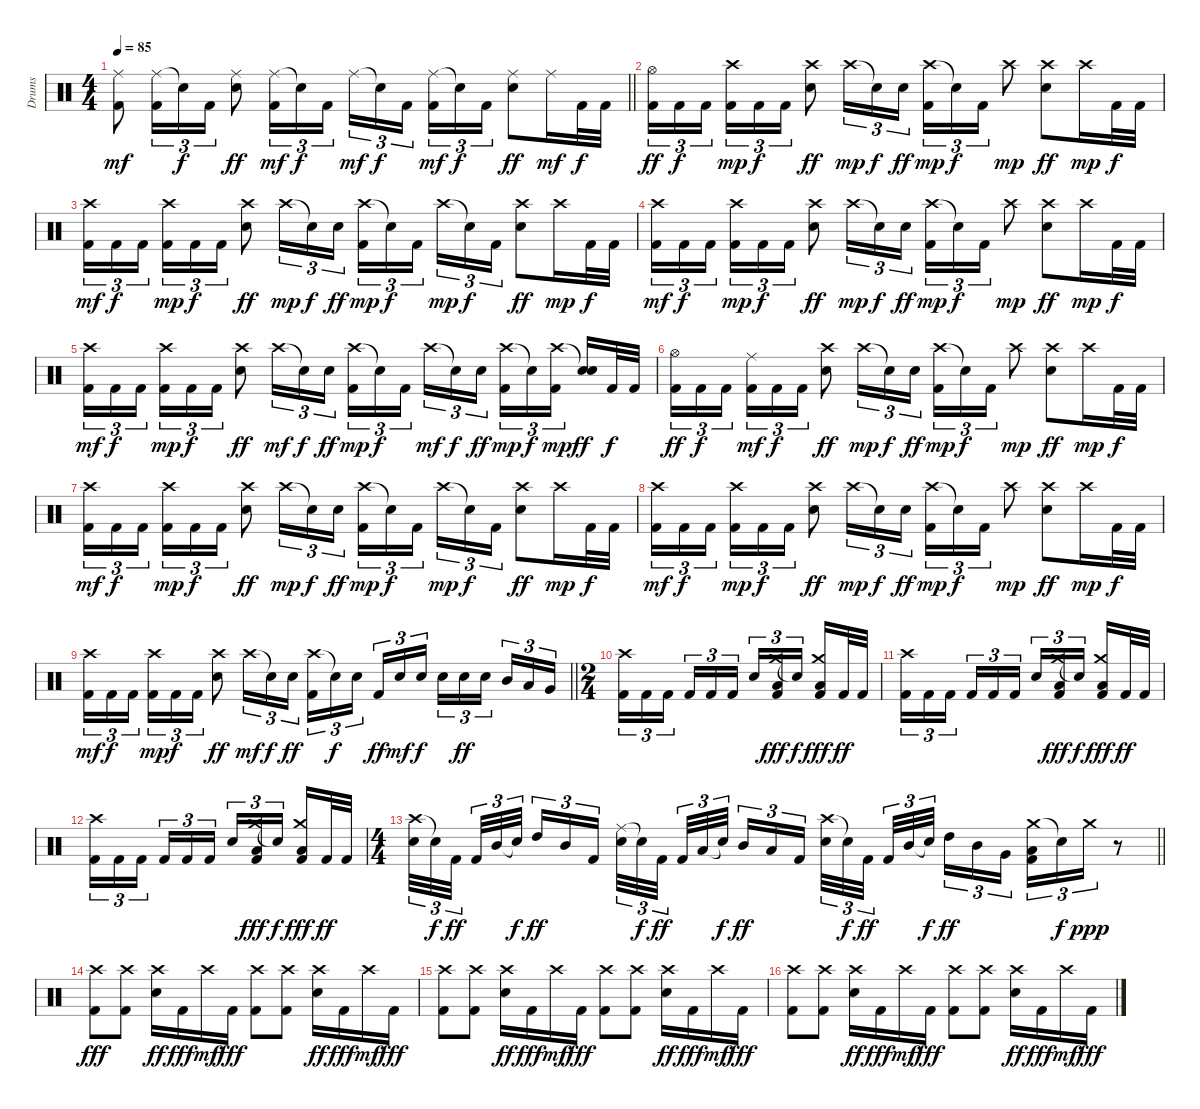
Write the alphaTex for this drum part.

\track ("Drums" "Drums") {instrument percussion}
\staff {score}
\articulation defaults
\ts (4 4)
\tempo 85
\clef neutral
\barLineRight lightlight
\ks c
("Ride (middle)" "Kick (hit) 2").8{dy mf} ("Ride (middle)" "Kick (hit) 2").16{tu (3 2)} "Snare (hit)"{t}.16{tu (3 2) dy f} "Kick (hit) 2".16{tu (3 2)} ("Ride (middle)" "Snare (hit) 2").8{dy ff} ("Ride (middle)" "Kick (hit) 2").16{tu (3 2) dy mf} "Snare (hit)"{t}.16{tu (3 2) dy f} "Kick (hit) 2".16{tu (3 2)} "Ride (middle)".16{tu (3 2) dy mf} "Snare (hit)"{t}.16{tu (3 2) dy f} "Kick (hit) 2".16{tu (3 2) beam splitsecondary} ("Ride (middle)" "Kick (hit) 2").16{tu (3 2) dy mf} "Snare (hit)"{t}.16{tu (3 2) dy f} "Kick (hit) 2".16{tu (3 2)} ("Ride (middle)" "Snare (hit) 2").8{dy ff} "Ride (middle)".16{dy mf} "Kick (hit) 2".32{dy f} "Kick (hit) 2".32 |
("Hi-Hat (open)" "Kick (hit) 2").16{tu (3 2) dy ff} "Kick (hit) 2".16{tu (3 2) dy f} "Kick (hit) 2".16{tu (3 2) beam splitsecondary} ("Crash high (hit)" "Kick (hit) 2").16{tu (3 2) dy mp} "Kick (hit) 2".16{tu (3 2) dy f} "Kick (hit) 2".16{tu (3 2)} ("Crash high (hit)" "Snare (hit) 2").8{dy ff} "Crash high (hit)".16{tu (3 2) dy mp} "Snare (hit)"{t}.16{tu (3 2) dy f} "Snare (hit) 2".16{tu (3 2) dy ff} ("Crash high (hit)" "Kick (hit) 2").16{tu (3 2) dy mp} "Snare (hit)"{t}.16{tu (3 2) dy f} "Kick (hit) 2".16{tu (3 2)} "Crash high (hit)".8{dy mp} ("Crash high (hit)" "Snare (hit) 2").8{dy ff} "Crash high (hit)".16{dy mp} "Kick (hit) 2".32{dy f} "Kick (hit) 2".32 |
("Crash high (hit)" "Kick (hit) 2").16{tu (3 2) dy mf} "Kick (hit) 2".16{tu (3 2) dy f} "Kick (hit) 2".16{tu (3 2) beam splitsecondary} ("Crash high (hit)" "Kick (hit) 2").16{tu (3 2) dy mp} "Kick (hit) 2".16{tu (3 2) dy f} "Kick (hit) 2".16{tu (3 2)} ("Crash high (hit)" "Snare (hit) 2").8{dy ff} "Crash high (hit)".16{tu (3 2) dy mp} "Snare (hit)"{t}.16{tu (3 2) dy f} "Snare (hit) 2".16{tu (3 2) dy ff} ("Crash high (hit)" "Kick (hit) 2").16{tu (3 2) dy mp} "Snare (hit)"{t}.16{tu (3 2) dy f} "Kick (hit) 2".16{tu (3 2) beam splitsecondary} "Crash high (hit)".16{tu (3 2) dy mp} "Snare (hit)"{t}.16{tu (3 2) dy f} "Kick (hit) 2".16{tu (3 2)} ("Crash high (hit)" "Snare (hit) 2").8{dy ff} "Crash high (hit)".16{dy mp} "Kick (hit) 2".32{dy f} "Kick (hit) 2".32 |
("Crash high (hit)" "Kick (hit) 2").16{tu (3 2) dy mf} "Kick (hit) 2".16{tu (3 2) dy f} "Kick (hit) 2".16{tu (3 2) beam splitsecondary} ("Crash high (hit)" "Kick (hit) 2").16{tu (3 2) dy mp} "Kick (hit) 2".16{tu (3 2) dy f} "Kick (hit) 2".16{tu (3 2)} ("Crash high (hit)" "Snare (hit) 2").8{dy ff} "Crash high (hit)".16{tu (3 2) dy mp} "Snare (hit)"{t}.16{tu (3 2) dy f} "Snare (hit) 2".16{tu (3 2) dy ff} ("Crash high (hit)" "Kick (hit) 2").16{tu (3 2) dy mp} "Snare (hit)"{t}.16{tu (3 2) dy f} "Kick (hit) 2".16{tu (3 2)} "Crash high (hit)".8{dy mp} ("Crash high (hit)" "Snare (hit) 2").8{dy ff} "Crash high (hit)".16{dy mp} "Kick (hit) 2".32{dy f} "Kick (hit) 2".32 |
("Crash high (hit)" "Kick (hit) 2").16{tu (3 2) dy mf} "Kick (hit) 2".16{tu (3 2) dy f} "Kick (hit) 2".16{tu (3 2) beam splitsecondary} ("Crash high (hit)" "Kick (hit) 2").16{tu (3 2) dy mp} "Kick (hit) 2".16{tu (3 2) dy f} "Kick (hit) 2".16{tu (3 2)} ("Crash high (hit)" "Snare (hit) 2").8{dy ff} "Crash high (hit)".16{tu (3 2) dy mf} "Snare (hit)"{t}.16{tu (3 2) dy f} "Snare (hit) 2".16{tu (3 2) dy ff} ("Crash high (hit)" "Kick (hit) 2").16{tu (3 2) dy mp} "Snare (hit)"{t}.16{tu (3 2) dy f} "Kick (hit) 2".16{tu (3 2) beam splitsecondary} "Crash high (hit)".16{tu (3 2) dy mf} "Snare (hit)"{t}.16{tu (3 2) dy f} "Snare (hit) 2".16{tu (3 2) dy ff} ("Crash high (hit)" "Kick (hit) 2").16{tu (3 2) dy mp} "Snare (hit)"{t}.16{tu (3 2) dy f} ("Crash high (hit)" "Kick (hit) 2").16{tu (3 2) dy mp beam splitsecondary} ("Snare (hit)"{t} "Snare (hit) 2").16{dy ff} "Kick (hit) 2".32{dy f} "Kick (hit) 2".32 |
("Hi-Hat (open)" "Kick (hit) 2").16{tu (3 2) dy ff} "Kick (hit) 2".16{tu (3 2) dy f} "Kick (hit) 2".16{tu (3 2) beam splitsecondary} ("Ride (middle)" "Kick (hit) 2").16{tu (3 2) dy mf} "Kick (hit) 2".16{tu (3 2) dy f} "Kick (hit) 2".16{tu (3 2)} ("Crash high (hit)" "Snare (hit) 2").8{dy ff} "Crash high (hit)".16{tu (3 2) dy mp} "Snare (hit)"{t}.16{tu (3 2) dy f} "Snare (hit) 2".16{tu (3 2) dy ff} ("Crash high (hit)" "Kick (hit) 2").16{tu (3 2) dy mp} "Snare (hit)"{t}.16{tu (3 2) dy f} "Kick (hit) 2".16{tu (3 2)} "Crash high (hit)".8{dy mp} ("Crash high (hit)" "Snare (hit) 2").8{dy ff} "Crash high (hit)".16{dy mp} "Kick (hit) 2".32{dy f} "Kick (hit) 2".32 |
("Crash high (hit)" "Kick (hit) 2").16{tu (3 2) dy mf} "Kick (hit) 2".16{tu (3 2) dy f} "Kick (hit) 2".16{tu (3 2) beam splitsecondary} ("Crash high (hit)" "Kick (hit) 2").16{tu (3 2) dy mp} "Kick (hit) 2".16{tu (3 2) dy f} "Kick (hit) 2".16{tu (3 2)} ("Crash high (hit)" "Snare (hit) 2").8{dy ff} "Crash high (hit)".16{tu (3 2) dy mp} "Snare (hit)"{t}.16{tu (3 2) dy f} "Snare (hit) 2".16{tu (3 2) dy ff} ("Crash high (hit)" "Kick (hit) 2").16{tu (3 2) dy mp} "Snare (hit)"{t}.16{tu (3 2) dy f} "Kick (hit) 2".16{tu (3 2) beam splitsecondary} "Crash high (hit)".16{tu (3 2) dy mp} "Snare (hit)"{t}.16{tu (3 2) dy f} "Kick (hit) 2".16{tu (3 2)} ("Crash high (hit)" "Snare (hit) 2").8{dy ff} "Crash high (hit)".16{dy mp} "Kick (hit) 2".32{dy f} "Kick (hit) 2".32 |
("Crash high (hit)" "Kick (hit) 2").16{tu (3 2) dy mf} "Kick (hit) 2".16{tu (3 2) dy f} "Kick (hit) 2".16{tu (3 2) beam splitsecondary} ("Crash high (hit)" "Kick (hit) 2").16{tu (3 2) dy mp} "Kick (hit) 2".16{tu (3 2) dy f} "Kick (hit) 2".16{tu (3 2)} ("Crash high (hit)" "Snare (hit) 2").8{dy ff} "Crash high (hit)".16{tu (3 2) dy mp} "Snare (hit)"{t}.16{tu (3 2) dy f} "Snare (hit) 2".16{tu (3 2) dy ff} ("Crash high (hit)" "Kick (hit) 2").16{tu (3 2) dy mp} "Snare (hit)"{t}.16{tu (3 2) dy f} "Kick (hit) 2".16{tu (3 2)} "Crash high (hit)".8{dy mp} ("Crash high (hit)" "Snare (hit) 2").8{dy ff} "Crash high (hit)".16{dy mp} "Kick (hit) 2".32{dy f} "Kick (hit) 2".32 |
\barLineRight lightlight
("Crash high (hit)" "Kick (hit) 2").16{tu (3 2) dy mf} "Kick (hit) 2".16{tu (3 2) dy f} "Kick (hit) 2".16{tu (3 2) beam splitsecondary} ("Crash high (hit)" "Kick (hit) 2").16{tu (3 2) dy mp} "Kick (hit) 2".16{tu (3 2) dy f} "Kick (hit) 2".16{tu (3 2)} ("Crash high (hit)" "Snare (hit) 2").8{dy ff} "Crash high (hit)".16{tu (3 2) dy mf} "Snare (hit)"{t}.16{tu (3 2) dy f} "Snare (hit) 2".16{tu (3 2) dy ff} ("Crash high (hit)" "Kick (hit) 2").16{tu (3 2)} "Snare (hit)"{t}.16{tu (3 2) dy f} "Snare (hit) 2".16{tu (3 2) beam splitsecondary} "Kick (hit) 2".16{tu (3 2) dy ff} "Snare (hit) 2".16{tu (3 2) dy mf} "Snare (hit) 2".16{tu (3 2) dy f} "Snare (hit) 2".16{tu (3 2)} "Snare (hit) 2".16{tu (3 2) dy ff} "Snare (hit) 2".16{tu (3 2) beam splitsecondary} "Mid Tom (hit)".16{tu (3 2)} "Low Tom (hit)".16{tu (3 2)} "Very Low Tom (hit)".16{tu (3 2)} |
\ts (2 4)
\section ("" "")
("Crash high (hit)" "Kick (hit) 2").16{tu (3 2)} "Kick (hit) 2".16{tu (3 2)} "Kick (hit) 2".16{tu (3 2) beam splitsecondary} "Kick (hit) 2".16{tu (3 2)} "Kick (hit) 2".16{tu (3 2)} "Kick (hit) 2".16{tu (3 2)} "Snare (hit) 2".16{tu (3 2)} ("Crash medium (hit)" "Low Floor Tom (hit)" "Kick (hit) 2").16{tu (3 2) dy fff} "Snare (hit)"{t}.16{tu (3 2) dy f beam splitsecondary} ("Crash medium (hit)" "Low Floor Tom (hit)" "Kick (hit) 2").16{dy fff} "Kick (hit) 2".32{dy ff} "Kick (hit) 2".32 |
("Crash high (hit)" "Kick (hit) 2").16{tu (3 2)} "Kick (hit) 2".16{tu (3 2)} "Kick (hit) 2".16{tu (3 2) beam splitsecondary} "Kick (hit) 2".16{tu (3 2)} "Kick (hit) 2".16{tu (3 2)} "Kick (hit) 2".16{tu (3 2)} "Snare (hit) 2".16{tu (3 2)} ("Crash medium (hit)" "Low Floor Tom (hit)" "Kick (hit) 2").16{tu (3 2) dy fff} "Snare (hit)"{t}.16{tu (3 2) dy f beam splitsecondary} ("Crash medium (hit)" "Low Floor Tom (hit)" "Kick (hit) 2").16{dy fff} "Kick (hit) 2".32{dy ff} "Kick (hit) 2".32 |
("Crash high (hit)" "Kick (hit) 2").16{tu (3 2)} "Kick (hit) 2".16{tu (3 2)} "Kick (hit) 2".16{tu (3 2) beam splitsecondary} "Kick (hit) 2".16{tu (3 2)} "Kick (hit) 2".16{tu (3 2)} "Kick (hit) 2".16{tu (3 2)} "Snare (hit) 2".16{tu (3 2)} ("Crash medium (hit)" "Low Floor Tom (hit)" "Kick (hit) 2").16{tu (3 2) dy fff} "Snare (hit)"{t}.16{tu (3 2) dy f beam splitsecondary} ("Crash medium (hit)" "Low Floor Tom (hit)" "Kick (hit) 2").16{dy fff} "Kick (hit) 2".32{dy ff} "Kick (hit) 2".32 |
\ts (4 4)
\barLineRight lightlight
("Crash high (hit)" "Snare (hit) 2").32{tu (3 2)} "Snare (hit)"{t}.32{tu (3 2) dy f} "Kick (hit) 2".32{tu (3 2) dy ff beam splitsecondary} "Kick (hit) 2".32{tu (3 2)} "Mid Tom (hit)".32{tu (3 2)} "Snare (hit)"{t}.32{tu (3 2) dy f beam splitsecondary} "High Tom (hit)".16{tu (3 2) dy ff} "Mid Tom (hit)".16{tu (3 2)} "Kick (hit) 2".16{tu (3 2)} ("Ride (middle)" "Snare (hit) 2").32{tu (3 2)} "Snare (hit)"{t}.32{tu (3 2) dy f} "Kick (hit) 2".32{tu (3 2) dy ff beam splitsecondary} "Kick (hit) 2".32{tu (3 2)} "Low Tom (hit)".32{tu (3 2)} "Snare (hit)"{t}.32{tu (3 2) dy f beam splitsecondary} "Mid Tom (hit)".16{tu (3 2) dy ff} "Low Tom (hit)".16{tu (3 2)} "Kick (hit) 2".16{tu (3 2)} ("Crash high (hit)" "Snare (hit) 2").32{tu (3 2)} "Snare (hit)"{t}.32{tu (3 2) dy f} "Kick (hit) 2".32{tu (3 2) dy ff beam splitsecondary} "Kick (hit) 2".32{tu (3 2)} "Mid Tom (hit)".32{tu (3 2)} "Snare (hit)"{t}.32{tu (3 2) dy f beam splitsecondary} "High Tom (hit)".16{tu (3 2) dy ff} "Mid Tom (hit)".16{tu (3 2)} "Very Low Tom (hit)".16{tu (3 2)} ("Crash medium (hit)" "Low Tom (hit)" "Kick (hit) 2").16{tu (3 2)} "Snare (hit)"{t}.16{tu (3 2) dy f} "Crash medium (hit)".16{tu (3 2) dy ppp} r.8 |
\section ("" "")
("Crash high (hit)" "Kick (hit) 2").8{dy fff} ("Crash high (hit)" "Kick (hit) 2").8 ("Crash high (hit)" "Snare (hit) 2").16{dy ff} "Kick (hit) 2".16{dy fff} "Crash high (hit)".16{dy mf} "Kick (hit) 2".16{dy fff} ("Crash high (hit)" "Kick (hit) 2").8 ("Crash high (hit)" "Kick (hit) 2").8 ("Crash high (hit)" "Snare (hit) 2").16{dy ff} "Kick (hit) 2".16{dy fff} "Crash high (hit)".16{dy mf} "Kick (hit) 2".16{dy fff} |
("Crash high (hit)" "Kick (hit) 2").8 ("Crash high (hit)" "Kick (hit) 2").8 ("Crash high (hit)" "Snare (hit) 2").16{dy ff} "Kick (hit) 2".16{dy fff} "Crash high (hit)".16{dy mf} "Kick (hit) 2".16{dy fff} ("Crash high (hit)" "Kick (hit) 2").8 ("Crash high (hit)" "Kick (hit) 2").8 ("Crash high (hit)" "Snare (hit) 2").16{dy ff} "Kick (hit) 2".16{dy fff} "Crash high (hit)".16{dy mf} "Kick (hit) 2".16{dy fff} |
("Crash high (hit)" "Kick (hit) 2").8 ("Crash high (hit)" "Kick (hit) 2").8 ("Crash high (hit)" "Snare (hit) 2").16{dy ff} "Kick (hit) 2".16{dy fff} "Crash high (hit)".16{dy mf} "Kick (hit) 2".16{dy fff} ("Crash high (hit)" "Kick (hit) 2").8 ("Crash high (hit)" "Kick (hit) 2").8 ("Crash high (hit)" "Snare (hit) 2").16{dy ff} "Kick (hit) 2".16{dy fff} "Crash high (hit)".16{dy mf} "Kick (hit) 2".16{dy fff}
